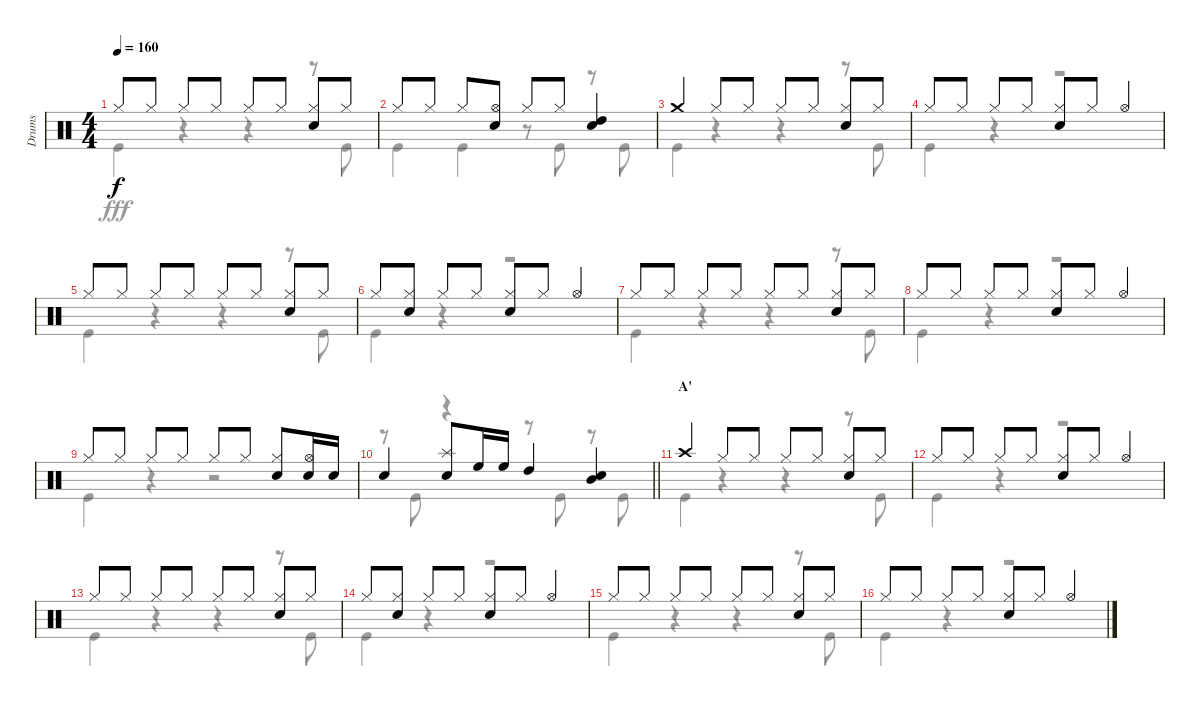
\track ("Drums" "Drums") {instrument percussion}
\staff {score}
\articulation defaults
\voice
\ts (4 4)
\tempo 160
\clef neutral
\ks c "Hi-Hat (closed)".8{dy f} "Hi-Hat (closed)".8 "Hi-Hat (closed)".8 "Hi-Hat (closed)".8 "Hi-Hat (closed)".8 "Hi-Hat (closed)".8
("Hi-Hat (closed)" "Snare (hit) 2").8 "Hi-Hat (closed)".8 |
"Hi-Hat (closed)".8 "Hi-Hat (closed)".8 "Hi-Hat (closed)".8 ("Hi-Hat (open)" "Snare (hit) 2").8 "Hi-Hat (closed)".8 "Hi-Hat (closed)".8 ("High Tom (hit)" "Snare (hit) 2").4 |
"Crash medium (hit)".4 "Hi-Hat (closed)".8 "Hi-Hat (closed)".8 "Hi-Hat (closed)".8 "Hi-Hat (closed)".8 ("Hi-Hat (closed)" "Snare (hit) 2").8 "Hi-Hat (closed)".8 |
"Hi-Hat (closed)".8 "Hi-Hat (closed)".8 "Hi-Hat (closed)".8 "Hi-Hat (closed)".8 ("Hi-Hat (closed)" "Snare (hit) 2").8 "Hi-Hat (closed)".8 "Hi-Hat (open)".4 |
"Hi-Hat (closed)".8 "Hi-Hat (closed)".8 "Hi-Hat (closed)".8 "Hi-Hat (closed)".8 "Hi-Hat (closed)".8 "Hi-Hat (closed)".8 ("Hi-Hat (closed)" "Snare (hit) 2").8 "Hi-Hat (closed)".8 |
"Hi-Hat (closed)".8 ("Hi-Hat (closed)" "Snare (hit) 2").8 "Hi-Hat (closed)".8 "Hi-Hat (closed)".8 ("Hi-Hat (closed)" "Snare (hit) 2").8 "Hi-Hat (closed)".8 "Hi-Hat (open)".4 |
"Hi-Hat (closed)".8 "Hi-Hat (closed)".8 "Hi-Hat (closed)".8 "Hi-Hat (closed)".8 "Hi-Hat (closed)".8 "Hi-Hat (closed)".8 ("Hi-Hat (closed)" "Snare (hit) 2").8 "Hi-Hat (closed)".8 |
"Hi-Hat (closed)".8 "Hi-Hat (closed)".8 "Hi-Hat (closed)".8 "Hi-Hat (closed)".8 ("Hi-Hat (closed)" "Snare (hit) 2").8 "Hi-Hat (closed)".8 "Hi-Hat (open)".4 |
"Hi-Hat (closed)".8 "Hi-Hat (closed)".8 "Hi-Hat (closed)".8 "Hi-Hat (closed)".8 "Hi-Hat (closed)".8 "Hi-Hat (closed)".8 ("Hi-Hat (closed)" "Snare (hit) 2").8 ("Hi-Hat (open)" "Snare (hit) 2").16 "Snare (hit) 2".16 |
\barLineRight lightlight "Snare (hit) 2".4
("Splash (hit)" "Snare (hit) 2").8 "High Floor Tom (hit)".16 "High Floor Tom (hit)".16 "High Tom (hit)".4 ("Mid Tom (hit)" "Snare (hit) 2").4 |
\section ("" "A'")
"Crash high (hit)".4 "Hi-Hat (closed)".8 "Hi-Hat (closed)".8 "Hi-Hat (closed)".8 "Hi-Hat (closed)".8 ("Hi-Hat (closed)" "Snare (hit) 2").8 "Hi-Hat (closed)".8 |
"Hi-Hat (closed)".8 "Hi-Hat (closed)".8 "Hi-Hat (closed)".8 "Hi-Hat (closed)".8 ("Hi-Hat (closed)" "Snare (hit) 2").8 "Hi-Hat (closed)".8 "Hi-Hat (open)".4 |
"Hi-Hat (closed)".8 "Hi-Hat (closed)".8 "Hi-Hat (closed)".8 "Hi-Hat (closed)".8 "Hi-Hat (closed)".8 "Hi-Hat (closed)".8 ("Hi-Hat (closed)" "Snare (hit) 2").8 "Hi-Hat (closed)".8 |
"Hi-Hat (closed)".8 ("Hi-Hat (closed)" "Snare (hit) 2").8 "Hi-Hat (closed)".8 "Hi-Hat (closed)".8 ("Hi-Hat (closed)" "Snare (hit) 2").8 "Hi-Hat (closed)".8 "Hi-Hat (open)".4 |
"Hi-Hat (closed)".8 "Hi-Hat (closed)".8 "Hi-Hat (closed)".8 "Hi-Hat (closed)".8 "Hi-Hat (closed)".8 "Hi-Hat (closed)".8 ("Hi-Hat (closed)" "Snare (hit) 2").8 "Hi-Hat (closed)".8 |
"Hi-Hat (closed)".8 "Hi-Hat (closed)".8 "Hi-Hat (closed)".8 "Hi-Hat (closed)".8 ("Hi-Hat (closed)" "Snare (hit) 2").8 "Hi-Hat (closed)".8 "Hi-Hat (open)".4
\voice
\clef neutral
\ottava regular
\simile none
\ks c "Kick (hit)".4{dy fff}
r.4 r.4 r.8 "Kick (hit)".8 |
"Kick (hit)".4 "Kick (hit)".4 r.8 "Kick (hit)".8 r.8 "Kick (hit)".8 |
"Kick (hit)".4 r.4 r.4 r.8 "Kick (hit)".8 |
"Kick (hit)".4 r.4 r.2 |
"Kick (hit)".4 r.4 r.4 r.8 "Kick (hit)".8 |
"Kick (hit)".4 r.4 r.2 |
"Kick (hit)".4 r.4 r.4 r.8 "Kick (hit)".8 |
"Kick (hit)".4 r.4 r.2 |
"Kick (hit)".4 r.4 r.2 |
\barLineRight lightlight
r.8 "Kick (hit)".8 r.4 r.8 "Kick (hit)".8 r.8 "Kick (hit)".8 |
"Kick (hit)".4 r.4 r.4 r.8 "Kick (hit)".8 |
"Kick (hit)".4 r.4 r.2 |
"Kick (hit)".4 r.4 r.4 r.8 "Kick (hit)".8 |
"Kick (hit)".4 r.4 r.2 |
"Kick (hit)".4 r.4 r.4 r.8 "Kick (hit)".8 |
"Kick (hit)".4 r.4 r.2
